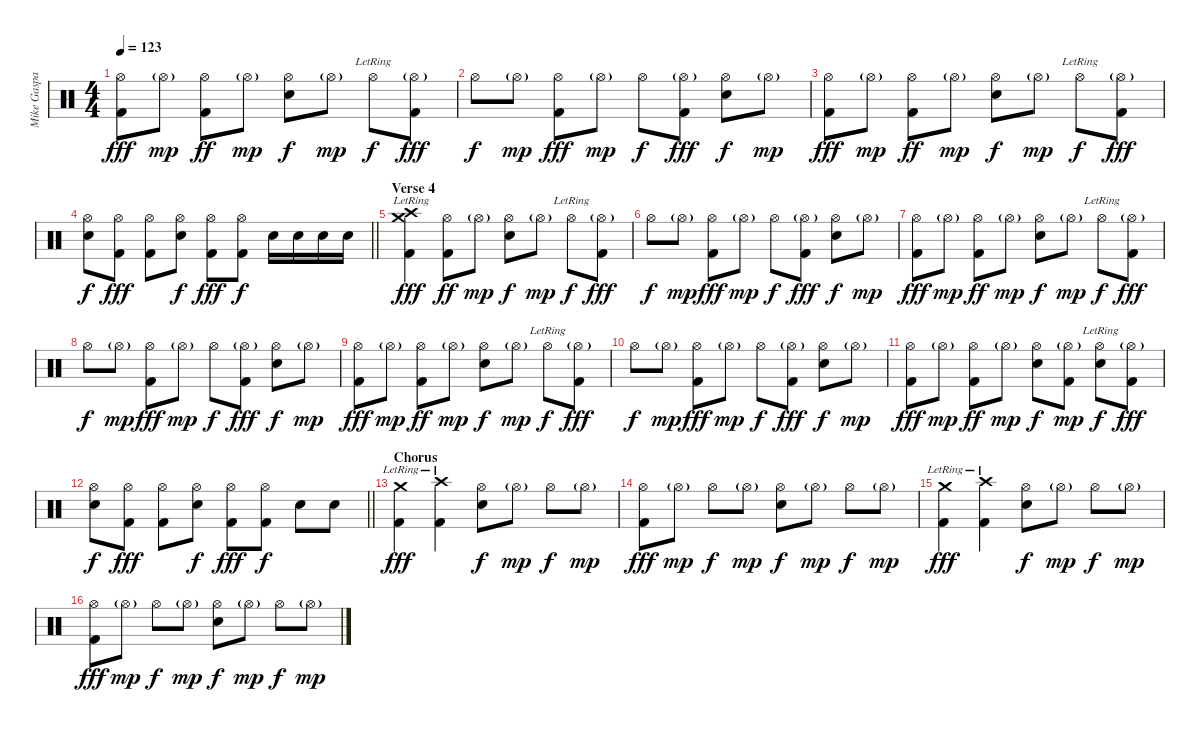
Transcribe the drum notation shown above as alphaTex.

\track ("Mike Gaspar (Drums)" "Mike Gaspa") {instrument percussion}
\staff {score}
\articulation defaults
\ts (4 4)
\tempo 123
\clef neutral
\ks c
("Hi-Hat (open)" "Kick (hit) 2").8{dy fff} "Hi-Hat (open)"{g}.8{dy mp} ("Hi-Hat (open)" "Kick (hit) 2").8{dy ff} "Hi-Hat (open)"{g}.8{dy mp} ("Hi-Hat (open)" "Snare (hit) 2").8{dy f} "Hi-Hat (open)"{g}.8{dy mp} "Hi-Hat (open)"{lr}.8{dy f} ("Hi-Hat (open)"{g} "Kick (hit) 2").8{dy fff} |
"Hi-Hat (open)".8{dy f} "Hi-Hat (open)"{g}.8{dy mp} ("Hi-Hat (open)" "Kick (hit) 2").8{dy fff} "Hi-Hat (open)"{g}.8{dy mp} "Hi-Hat (open)".8{dy f} ("Hi-Hat (open)"{g} "Kick (hit) 2").8{dy fff} ("Hi-Hat (open)" "Snare (hit) 2").8{dy f} "Hi-Hat (open)"{g}.8{dy mp} |
("Hi-Hat (open)" "Kick (hit) 2").8{dy fff} "Hi-Hat (open)"{g}.8{dy mp} ("Hi-Hat (open)" "Kick (hit) 2").8{dy ff} "Hi-Hat (open)"{g}.8{dy mp} ("Hi-Hat (open)" "Snare (hit) 2").8{dy f} "Hi-Hat (open)"{g}.8{dy mp} "Hi-Hat (open)"{lr}.8{dy f} ("Hi-Hat (open)"{g} "Kick (hit) 2").8{dy fff} |
\barLineRight lightlight
("Hi-Hat (open)" "Snare (hit) 2").8{dy f} ("Hi-Hat (open)" "Kick (hit) 2").8{dy fff} ("Hi-Hat (open)" "Kick (hit) 2").8 ("Hi-Hat (open)" "Snare (hit) 2").8{dy f} ("Hi-Hat (open)" "Kick (hit) 2").8{dy fff} ("Hi-Hat (open)" "Kick (hit) 2").8{dy f} "Snare (hit) 2".16 "Snare (hit) 2".16 "Snare (hit) 2".16 "Snare (hit) 2".16 |
\section ("" "Verse 4")
("Crash medium (hit)"{lr} "Crash high (hit)"{lr} "Kick (hit) 2").4{dy fff} ("Hi-Hat (open)" "Kick (hit) 2").8{dy ff} "Hi-Hat (open)"{g}.8{dy mp} ("Hi-Hat (open)" "Snare (hit) 2").8{dy f} "Hi-Hat (open)"{g}.8{dy mp} "Hi-Hat (open)"{lr}.8{dy f} ("Hi-Hat (open)"{g} "Kick (hit) 2").8{dy fff} |
"Hi-Hat (open)".8{dy f} "Hi-Hat (open)"{g}.8{dy mp} ("Hi-Hat (open)" "Kick (hit) 2").8{dy fff} "Hi-Hat (open)"{g}.8{dy mp} "Hi-Hat (open)".8{dy f} ("Hi-Hat (open)"{g} "Kick (hit) 2").8{dy fff} ("Hi-Hat (open)" "Snare (hit) 2").8{dy f} "Hi-Hat (open)"{g}.8{dy mp} |
("Hi-Hat (open)" "Kick (hit) 2").8{dy fff} "Hi-Hat (open)"{g}.8{dy mp} ("Hi-Hat (open)" "Kick (hit) 2").8{dy ff} "Hi-Hat (open)"{g}.8{dy mp} ("Hi-Hat (open)" "Snare (hit) 2").8{dy f} "Hi-Hat (open)"{g}.8{dy mp} "Hi-Hat (open)"{lr}.8{dy f} ("Hi-Hat (open)"{g} "Kick (hit) 2").8{dy fff} |
"Hi-Hat (open)".8{dy f} "Hi-Hat (open)"{g}.8{dy mp} ("Hi-Hat (open)" "Kick (hit) 2").8{dy fff} "Hi-Hat (open)"{g}.8{dy mp} "Hi-Hat (open)".8{dy f} ("Hi-Hat (open)"{g} "Kick (hit) 2").8{dy fff} ("Hi-Hat (open)" "Snare (hit) 2").8{dy f} "Hi-Hat (open)"{g}.8{dy mp} |
("Hi-Hat (open)" "Kick (hit) 2").8{dy fff} "Hi-Hat (open)"{g}.8{dy mp} ("Hi-Hat (open)" "Kick (hit) 2").8{dy ff} "Hi-Hat (open)"{g}.8{dy mp} ("Hi-Hat (open)" "Snare (hit) 2").8{dy f} "Hi-Hat (open)"{g}.8{dy mp} "Hi-Hat (open)"{lr}.8{dy f} ("Hi-Hat (open)"{g} "Kick (hit) 2").8{dy fff} |
"Hi-Hat (open)".8{dy f} "Hi-Hat (open)"{g}.8{dy mp} ("Hi-Hat (open)" "Kick (hit) 2").8{dy fff} "Hi-Hat (open)"{g}.8{dy mp} "Hi-Hat (open)".8{dy f} ("Hi-Hat (open)"{g} "Kick (hit) 2").8{dy fff} ("Hi-Hat (open)" "Snare (hit) 2").8{dy f} "Hi-Hat (open)"{g}.8{dy mp} |
("Hi-Hat (open)" "Kick (hit) 2").8{dy fff} "Hi-Hat (open)"{g}.8{dy mp} ("Hi-Hat (open)" "Kick (hit) 2").8{dy ff} "Hi-Hat (open)"{g}.8{dy mp} ("Hi-Hat (open)" "Snare (hit) 2").8{dy f} ("Hi-Hat (open)"{g} "Kick (hit) 2").8{dy mp} ("Hi-Hat (open)"{lr} "Snare (hit) 2").8{dy f} ("Hi-Hat (open)"{g} "Kick (hit) 2").8{dy fff} |
\barLineRight lightlight
("Hi-Hat (open)" "Snare (hit) 2").8{dy f} ("Hi-Hat (open)" "Kick (hit) 2").8{dy fff} ("Hi-Hat (open)" "Kick (hit) 2").8 ("Hi-Hat (open)" "Snare (hit) 2").8{dy f} ("Hi-Hat (open)" "Kick (hit) 2").8{dy fff} ("Hi-Hat (open)" "Kick (hit) 2").8{dy f} "Snare (hit) 2".8 "Snare (hit) 2".8 |
\section ("" "Chorus")
("Crash medium (hit)"{lr} "Kick (hit) 2").4{dy fff} ("Crash high (hit)"{lr} "Kick (hit) 2").4 ("Hi-Hat (open)" "Snare (hit) 2").8{dy f} "Hi-Hat (open)"{g}.8{dy mp} "Hi-Hat (open)".8{dy f} "Hi-Hat (open)"{g}.8{dy mp} |
("Hi-Hat (open)" "Kick (hit) 2").8{dy fff} "Hi-Hat (open)"{g}.8{dy mp} "Hi-Hat (open)".8{dy f} "Hi-Hat (open)"{g}.8{dy mp} ("Hi-Hat (open)" "Snare (hit) 2").8{dy f} "Hi-Hat (open)"{g}.8{dy mp} "Hi-Hat (open)".8{dy f} "Hi-Hat (open)"{g}.8{dy mp} |
("Crash medium (hit)"{lr} "Kick (hit) 2").4{dy fff} ("Crash high (hit)"{lr} "Kick (hit) 2").4 ("Hi-Hat (open)" "Snare (hit) 2").8{dy f} "Hi-Hat (open)"{g}.8{dy mp} "Hi-Hat (open)".8{dy f} "Hi-Hat (open)"{g}.8{dy mp} |
("Hi-Hat (open)" "Kick (hit) 2").8{dy fff} "Hi-Hat (open)"{g}.8{dy mp} "Hi-Hat (open)".8{dy f} "Hi-Hat (open)"{g}.8{dy mp} ("Hi-Hat (open)" "Snare (hit) 2").8{dy f} "Hi-Hat (open)"{g}.8{dy mp} "Hi-Hat (open)".8{dy f} "Hi-Hat (open)"{g}.8{dy mp}
